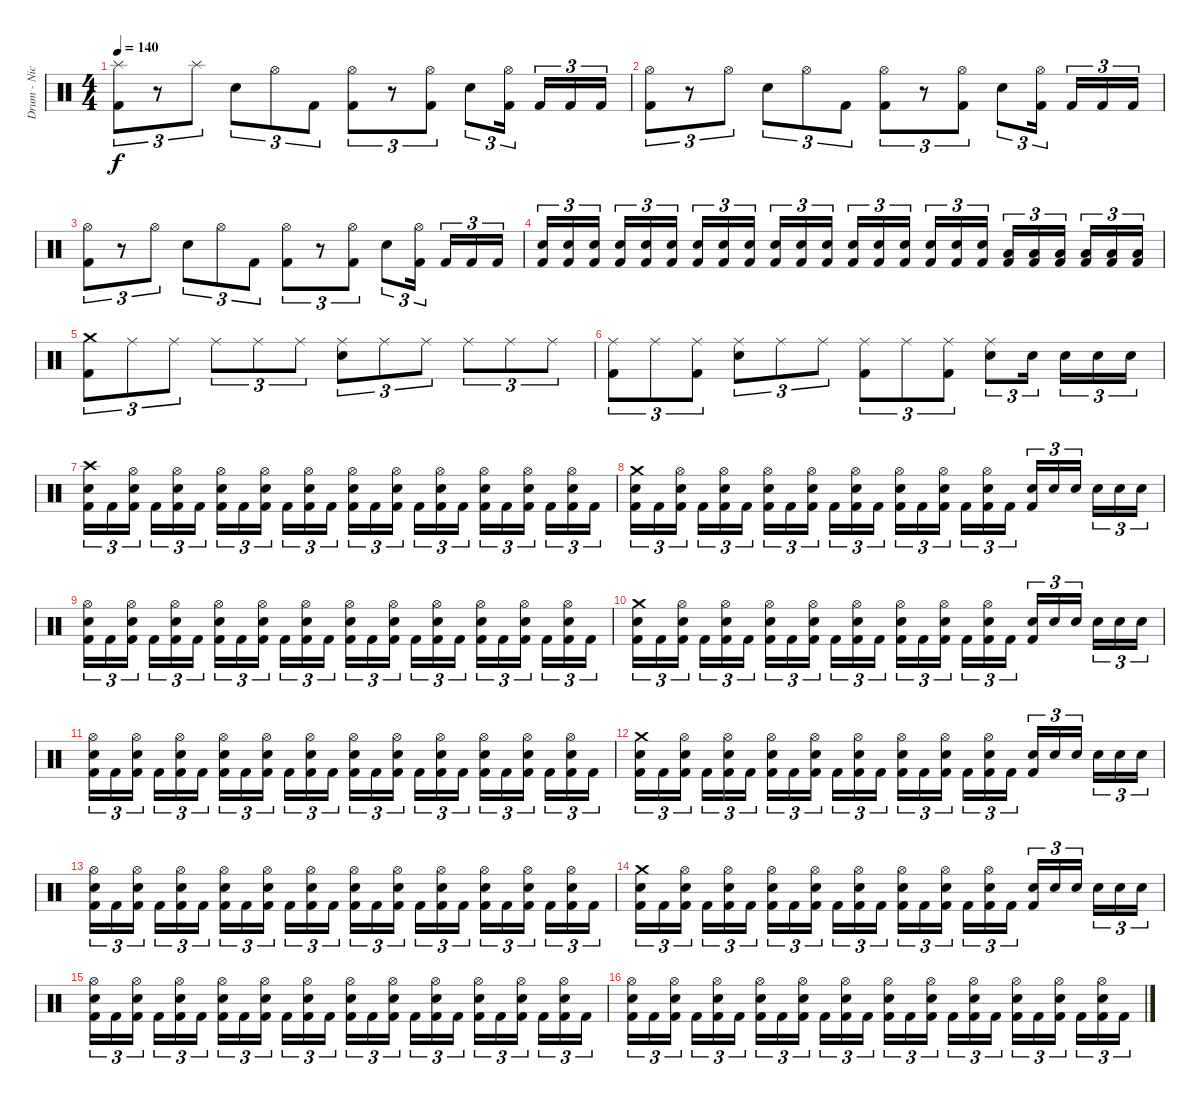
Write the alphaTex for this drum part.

\track ("Drum - Nicholas" "Drum - Nic") {instrument percussion}
\staff {score}
\articulation defaults
\ts (4 4)
\tempo 140
\clef neutral
\ks c
("Splash (hit)" "Kick (hit) 2").8{tu (3 2) dy f} r.8{tu (3 2)} "Splash (hit)".8{tu (3 2)} "Snare (hit) 2".8{tu (3 2)} "Hi-Hat (open)".8{tu (3 2)} "Kick (hit) 2".8{tu (3 2)} ("Hi-Hat (open)" "Kick (hit) 2").8{tu (3 2)} r.8{tu (3 2)} ("Hi-Hat (open)" "Kick (hit) 2").8{tu (3 2)} "Snare (hit) 2".8{tu (3 2)} ("Hi-Hat (open)" "Kick (hit) 2").16{tu (3 2) beam splitsecondary} "Kick (hit) 2".16{tu (3 2)} "Kick (hit) 2".16{tu (3 2)} "Kick (hit) 2".16{tu (3 2)} |
("Hi-Hat (open)" "Kick (hit) 2").8{tu (3 2)} r.8{tu (3 2)} "Hi-Hat (open)".8{tu (3 2)} "Snare (hit) 2".8{tu (3 2)} "Hi-Hat (open)".8{tu (3 2)} "Kick (hit) 2".8{tu (3 2)} ("Hi-Hat (open)" "Kick (hit) 2").8{tu (3 2)} r.8{tu (3 2)} ("Hi-Hat (open)" "Kick (hit) 2").8{tu (3 2)} "Snare (hit) 2".8{tu (3 2)} ("Hi-Hat (open)" "Kick (hit) 2").16{tu (3 2) beam splitsecondary} "Kick (hit) 2".16{tu (3 2)} "Kick (hit) 2".16{tu (3 2)} "Kick (hit) 2".16{tu (3 2)} |
("Hi-Hat (open)" "Kick (hit) 2").8{tu (3 2)} r.8{tu (3 2)} "Hi-Hat (open)".8{tu (3 2)} "Snare (hit) 2".8{tu (3 2)} "Hi-Hat (open)".8{tu (3 2)} "Kick (hit) 2".8{tu (3 2)} ("Hi-Hat (open)" "Kick (hit) 2").8{tu (3 2)} r.8{tu (3 2)} ("Hi-Hat (open)" "Kick (hit) 2").8{tu (3 2)} "Snare (hit) 2".8{tu (3 2)} ("Hi-Hat (open)" "Kick (hit) 2").16{tu (3 2) beam splitsecondary} "Kick (hit) 2".16{tu (3 2)} "Kick (hit) 2".16{tu (3 2)} "Kick (hit) 2".16{tu (3 2)} |
("Snare (hit) 2" "Kick (hit) 2").16{tu (3 2)} ("Snare (hit) 2" "Kick (hit) 2").16{tu (3 2)} ("Snare (hit) 2" "Kick (hit) 2").16{tu (3 2) beam splitsecondary} ("Snare (hit) 2" "Kick (hit) 2").16{tu (3 2)} ("Snare (hit) 2" "Kick (hit) 2").16{tu (3 2)} ("Snare (hit) 2" "Kick (hit) 2").16{tu (3 2)} ("Snare (hit) 2" "Kick (hit) 2").16{tu (3 2)} ("Snare (hit) 2" "Kick (hit) 2").16{tu (3 2)} ("Snare (hit) 2" "Kick (hit) 2").16{tu (3 2) beam splitsecondary} ("Snare (hit) 2" "Kick (hit) 2").16{tu (3 2)} ("Snare (hit) 2" "Kick (hit) 2").16{tu (3 2)} ("Snare (hit) 2" "Kick (hit) 2").16{tu (3 2)} ("Snare (hit) 2" "Kick (hit) 2").16{tu (3 2)} ("Snare (hit) 2" "Kick (hit) 2").16{tu (3 2)} ("Snare (hit) 2" "Kick (hit) 2").16{tu (3 2) beam splitsecondary} ("Snare (hit) 2" "Kick (hit) 2").16{tu (3 2)} ("Snare (hit) 2" "Kick (hit) 2").16{tu (3 2)} ("Snare (hit) 2" "Kick (hit) 2").16{tu (3 2)} ("Low Tom (hit)" "Kick (hit) 2").16{tu (3 2)} ("Low Tom (hit)" "Kick (hit) 2").16{tu (3 2)} ("Low Tom (hit)" "Kick (hit) 2").16{tu (3 2) beam splitsecondary} ("Low Tom (hit)" "Kick (hit) 2").16{tu (3 2)} ("Low Tom (hit)" "Kick (hit) 2").16{tu (3 2)} ("Low Tom (hit)" "Kick (hit) 2").16{tu (3 2)} |
("Crash medium (hit)" "Kick (hit) 2").8{tu (3 2)} "Ride (middle)".8{tu (3 2)} "Ride (middle)".8{tu (3 2)} "Ride (middle)".8{tu (3 2)} "Ride (middle)".8{tu (3 2)} "Ride (middle)".8{tu (3 2)} ("Ride (middle)" "Snare (hit) 2").8{tu (3 2)} "Ride (middle)".8{tu (3 2)} "Ride (middle)".8{tu (3 2)} "Ride (middle)".8{tu (3 2)} "Ride (middle)".8{tu (3 2)} "Ride (middle)".8{tu (3 2)} |
("Ride (middle)" "Kick (hit) 2").8{tu (3 2)} "Ride (middle)".8{tu (3 2)} ("Ride (middle)" "Kick (hit) 2").8{tu (3 2)} ("Ride (middle)" "Snare (hit) 2").8{tu (3 2)} "Ride (middle)".8{tu (3 2)} "Ride (middle)".8{tu (3 2)} ("Ride (middle)" "Kick (hit) 2").8{tu (3 2)} "Ride (middle)".8{tu (3 2)} ("Ride (middle)" "Kick (hit) 2").8{tu (3 2)} ("Ride (middle)" "Snare (hit) 2").8{tu (3 2)} "Snare (hit) 2".16{tu (3 2) beam splitsecondary} "Snare (hit) 2".16{tu (3 2)} "Snare (hit) 2".16{tu (3 2)} "Snare (hit) 2".16{tu (3 2)} |
("Crash high (hit)" "Snare (hit) 2" "Kick (hit) 2").16{tu (3 2)} "Kick (hit) 2".16{tu (3 2)} ("Hi-Hat (open)" "Snare (hit) 2" "Kick (hit) 2").16{tu (3 2) beam splitsecondary} "Kick (hit) 2".16{tu (3 2)} ("Hi-Hat (open)" "Snare (hit) 2" "Kick (hit) 2").16{tu (3 2)} "Kick (hit) 2".16{tu (3 2)} ("Hi-Hat (open)" "Snare (hit) 2" "Kick (hit) 2").16{tu (3 2)} "Kick (hit) 2".16{tu (3 2)} ("Hi-Hat (open)" "Snare (hit) 2" "Kick (hit) 2").16{tu (3 2) beam splitsecondary} "Kick (hit) 2".16{tu (3 2)} ("Hi-Hat (open)" "Snare (hit) 2" "Kick (hit) 2").16{tu (3 2)} "Kick (hit) 2".16{tu (3 2)} ("Hi-Hat (open)" "Snare (hit) 2" "Kick (hit) 2").16{tu (3 2)} "Kick (hit) 2".16{tu (3 2)} ("Hi-Hat (open)" "Snare (hit) 2" "Kick (hit) 2").16{tu (3 2) beam splitsecondary} "Kick (hit) 2".16{tu (3 2)} ("Hi-Hat (open)" "Snare (hit) 2" "Kick (hit) 2").16{tu (3 2)} "Kick (hit) 2".16{tu (3 2)} ("Hi-Hat (open)" "Snare (hit) 2" "Kick (hit) 2").16{tu (3 2)} "Kick (hit) 2".16{tu (3 2)} ("Hi-Hat (open)" "Snare (hit) 2" "Kick (hit) 2").16{tu (3 2) beam splitsecondary} "Kick (hit) 2".16{tu (3 2)} ("Hi-Hat (open)" "Snare (hit) 2" "Kick (hit) 2").16{tu (3 2)} "Kick (hit) 2".16{tu (3 2)} |
("Crash medium (hit)" "Snare (hit) 2" "Kick (hit) 2").16{tu (3 2)} "Kick (hit) 2".16{tu (3 2)} ("Hi-Hat (open)" "Snare (hit) 2" "Kick (hit) 2").16{tu (3 2) beam splitsecondary} "Kick (hit) 2".16{tu (3 2)} ("Hi-Hat (open)" "Snare (hit) 2" "Kick (hit) 2").16{tu (3 2)} "Kick (hit) 2".16{tu (3 2)} ("Hi-Hat (open)" "Snare (hit) 2" "Kick (hit) 2").16{tu (3 2)} "Kick (hit) 2".16{tu (3 2)} ("Hi-Hat (open)" "Snare (hit) 2" "Kick (hit) 2").16{tu (3 2) beam splitsecondary} "Kick (hit) 2".16{tu (3 2)} ("Hi-Hat (open)" "Snare (hit) 2" "Kick (hit) 2").16{tu (3 2)} "Kick (hit) 2".16{tu (3 2)} ("Hi-Hat (open)" "Snare (hit) 2" "Kick (hit) 2").16{tu (3 2)} "Kick (hit) 2".16{tu (3 2)} ("Hi-Hat (open)" "Snare (hit) 2" "Kick (hit) 2").16{tu (3 2) beam splitsecondary} "Kick (hit) 2".16{tu (3 2)} ("Hi-Hat (open)" "Snare (hit) 2" "Kick (hit) 2").16{tu (3 2)} "Kick (hit) 2".16{tu (3 2)} ("Snare (hit) 2" "Kick (hit) 2").16{tu (3 2)} "Snare (hit) 2".16{tu (3 2)} "Snare (hit) 2".16{tu (3 2) beam splitsecondary} "Snare (hit) 2".16{tu (3 2)} "Snare (hit) 2".16{tu (3 2)} "Snare (hit) 2".16{tu (3 2)} |
("Hi-Hat (open)" "Snare (hit) 2" "Kick (hit) 2").16{tu (3 2)} "Kick (hit) 2".16{tu (3 2)} ("Hi-Hat (open)" "Snare (hit) 2" "Kick (hit) 2").16{tu (3 2) beam splitsecondary} "Kick (hit) 2".16{tu (3 2)} ("Hi-Hat (open)" "Snare (hit) 2" "Kick (hit) 2").16{tu (3 2)} "Kick (hit) 2".16{tu (3 2)} ("Hi-Hat (open)" "Snare (hit) 2" "Kick (hit) 2").16{tu (3 2)} "Kick (hit) 2".16{tu (3 2)} ("Hi-Hat (open)" "Snare (hit) 2" "Kick (hit) 2").16{tu (3 2) beam splitsecondary} "Kick (hit) 2".16{tu (3 2)} ("Hi-Hat (open)" "Snare (hit) 2" "Kick (hit) 2").16{tu (3 2)} "Kick (hit) 2".16{tu (3 2)} ("Hi-Hat (open)" "Snare (hit) 2" "Kick (hit) 2").16{tu (3 2)} "Kick (hit) 2".16{tu (3 2)} ("Hi-Hat (open)" "Snare (hit) 2" "Kick (hit) 2").16{tu (3 2) beam splitsecondary} "Kick (hit) 2".16{tu (3 2)} ("Hi-Hat (open)" "Snare (hit) 2" "Kick (hit) 2").16{tu (3 2)} "Kick (hit) 2".16{tu (3 2)} ("Hi-Hat (open)" "Snare (hit) 2" "Kick (hit) 2").16{tu (3 2)} "Kick (hit) 2".16{tu (3 2)} ("Hi-Hat (open)" "Snare (hit) 2" "Kick (hit) 2").16{tu (3 2) beam splitsecondary} "Kick (hit) 2".16{tu (3 2)} ("Hi-Hat (open)" "Snare (hit) 2" "Kick (hit) 2").16{tu (3 2)} "Kick (hit) 2".16{tu (3 2)} |
("Crash medium (hit)" "Snare (hit) 2" "Kick (hit) 2").16{tu (3 2)} "Kick (hit) 2".16{tu (3 2)} ("Hi-Hat (open)" "Snare (hit) 2" "Kick (hit) 2").16{tu (3 2) beam splitsecondary} "Kick (hit) 2".16{tu (3 2)} ("Hi-Hat (open)" "Snare (hit) 2" "Kick (hit) 2").16{tu (3 2)} "Kick (hit) 2".16{tu (3 2)} ("Hi-Hat (open)" "Snare (hit) 2" "Kick (hit) 2").16{tu (3 2)} "Kick (hit) 2".16{tu (3 2)} ("Hi-Hat (open)" "Snare (hit) 2" "Kick (hit) 2").16{tu (3 2) beam splitsecondary} "Kick (hit) 2".16{tu (3 2)} ("Hi-Hat (open)" "Snare (hit) 2" "Kick (hit) 2").16{tu (3 2)} "Kick (hit) 2".16{tu (3 2)} ("Hi-Hat (open)" "Snare (hit) 2" "Kick (hit) 2").16{tu (3 2)} "Kick (hit) 2".16{tu (3 2)} ("Hi-Hat (open)" "Snare (hit) 2" "Kick (hit) 2").16{tu (3 2) beam splitsecondary} "Kick (hit) 2".16{tu (3 2)} ("Hi-Hat (open)" "Snare (hit) 2" "Kick (hit) 2").16{tu (3 2)} "Kick (hit) 2".16{tu (3 2)} ("Snare (hit) 2" "Kick (hit) 2").16{tu (3 2)} "Snare (hit) 2".16{tu (3 2)} "Snare (hit) 2".16{tu (3 2) beam splitsecondary} "Snare (hit) 2".16{tu (3 2)} "Snare (hit) 2".16{tu (3 2)} "Snare (hit) 2".16{tu (3 2)} |
("Hi-Hat (open)" "Snare (hit) 2" "Kick (hit) 2").16{tu (3 2)} "Kick (hit) 2".16{tu (3 2)} ("Hi-Hat (open)" "Snare (hit) 2" "Kick (hit) 2").16{tu (3 2) beam splitsecondary} "Kick (hit) 2".16{tu (3 2)} ("Hi-Hat (open)" "Snare (hit) 2" "Kick (hit) 2").16{tu (3 2)} "Kick (hit) 2".16{tu (3 2)} ("Hi-Hat (open)" "Snare (hit) 2" "Kick (hit) 2").16{tu (3 2)} "Kick (hit) 2".16{tu (3 2)} ("Hi-Hat (open)" "Snare (hit) 2" "Kick (hit) 2").16{tu (3 2) beam splitsecondary} "Kick (hit) 2".16{tu (3 2)} ("Hi-Hat (open)" "Snare (hit) 2" "Kick (hit) 2").16{tu (3 2)} "Kick (hit) 2".16{tu (3 2)} ("Hi-Hat (open)" "Snare (hit) 2" "Kick (hit) 2").16{tu (3 2)} "Kick (hit) 2".16{tu (3 2)} ("Hi-Hat (open)" "Snare (hit) 2" "Kick (hit) 2").16{tu (3 2) beam splitsecondary} "Kick (hit) 2".16{tu (3 2)} ("Hi-Hat (open)" "Snare (hit) 2" "Kick (hit) 2").16{tu (3 2)} "Kick (hit) 2".16{tu (3 2)} ("Hi-Hat (open)" "Snare (hit) 2" "Kick (hit) 2").16{tu (3 2)} "Kick (hit) 2".16{tu (3 2)} ("Hi-Hat (open)" "Snare (hit) 2" "Kick (hit) 2").16{tu (3 2) beam splitsecondary} "Kick (hit) 2".16{tu (3 2)} ("Hi-Hat (open)" "Snare (hit) 2" "Kick (hit) 2").16{tu (3 2)} "Kick (hit) 2".16{tu (3 2)} |
("Crash medium (hit)" "Snare (hit) 2" "Kick (hit) 2").16{tu (3 2)} "Kick (hit) 2".16{tu (3 2)} ("Hi-Hat (open)" "Snare (hit) 2" "Kick (hit) 2").16{tu (3 2) beam splitsecondary} "Kick (hit) 2".16{tu (3 2)} ("Hi-Hat (open)" "Snare (hit) 2" "Kick (hit) 2").16{tu (3 2)} "Kick (hit) 2".16{tu (3 2)} ("Hi-Hat (open)" "Snare (hit) 2" "Kick (hit) 2").16{tu (3 2)} "Kick (hit) 2".16{tu (3 2)} ("Hi-Hat (open)" "Snare (hit) 2" "Kick (hit) 2").16{tu (3 2) beam splitsecondary} "Kick (hit) 2".16{tu (3 2)} ("Hi-Hat (open)" "Snare (hit) 2" "Kick (hit) 2").16{tu (3 2)} "Kick (hit) 2".16{tu (3 2)} ("Hi-Hat (open)" "Snare (hit) 2" "Kick (hit) 2").16{tu (3 2)} "Kick (hit) 2".16{tu (3 2)} ("Hi-Hat (open)" "Snare (hit) 2" "Kick (hit) 2").16{tu (3 2) beam splitsecondary} "Kick (hit) 2".16{tu (3 2)} ("Hi-Hat (open)" "Snare (hit) 2" "Kick (hit) 2").16{tu (3 2)} "Kick (hit) 2".16{tu (3 2)} ("Snare (hit) 2" "Kick (hit) 2").16{tu (3 2)} "Snare (hit) 2".16{tu (3 2)} "Snare (hit) 2".16{tu (3 2) beam splitsecondary} "Snare (hit) 2".16{tu (3 2)} "Snare (hit) 2".16{tu (3 2)} "Snare (hit) 2".16{tu (3 2)} |
("Hi-Hat (open)" "Snare (hit) 2" "Kick (hit) 2").16{tu (3 2)} "Kick (hit) 2".16{tu (3 2)} ("Hi-Hat (open)" "Snare (hit) 2" "Kick (hit) 2").16{tu (3 2) beam splitsecondary} "Kick (hit) 2".16{tu (3 2)} ("Hi-Hat (open)" "Snare (hit) 2" "Kick (hit) 2").16{tu (3 2)} "Kick (hit) 2".16{tu (3 2)} ("Hi-Hat (open)" "Snare (hit) 2" "Kick (hit) 2").16{tu (3 2)} "Kick (hit) 2".16{tu (3 2)} ("Hi-Hat (open)" "Snare (hit) 2" "Kick (hit) 2").16{tu (3 2) beam splitsecondary} "Kick (hit) 2".16{tu (3 2)} ("Hi-Hat (open)" "Snare (hit) 2" "Kick (hit) 2").16{tu (3 2)} "Kick (hit) 2".16{tu (3 2)} ("Hi-Hat (open)" "Snare (hit) 2" "Kick (hit) 2").16{tu (3 2)} "Kick (hit) 2".16{tu (3 2)} ("Hi-Hat (open)" "Snare (hit) 2" "Kick (hit) 2").16{tu (3 2) beam splitsecondary} "Kick (hit) 2".16{tu (3 2)} ("Hi-Hat (open)" "Snare (hit) 2" "Kick (hit) 2").16{tu (3 2)} "Kick (hit) 2".16{tu (3 2)} ("Hi-Hat (open)" "Snare (hit) 2" "Kick (hit) 2").16{tu (3 2)} "Kick (hit) 2".16{tu (3 2)} ("Hi-Hat (open)" "Snare (hit) 2" "Kick (hit) 2").16{tu (3 2) beam splitsecondary} "Kick (hit) 2".16{tu (3 2)} ("Hi-Hat (open)" "Snare (hit) 2" "Kick (hit) 2").16{tu (3 2)} "Kick (hit) 2".16{tu (3 2)} |
("Crash medium (hit)" "Snare (hit) 2" "Kick (hit) 2").16{tu (3 2)} "Kick (hit) 2".16{tu (3 2)} ("Hi-Hat (open)" "Snare (hit) 2" "Kick (hit) 2").16{tu (3 2) beam splitsecondary} "Kick (hit) 2".16{tu (3 2)} ("Hi-Hat (open)" "Snare (hit) 2" "Kick (hit) 2").16{tu (3 2)} "Kick (hit) 2".16{tu (3 2)} ("Hi-Hat (open)" "Snare (hit) 2" "Kick (hit) 2").16{tu (3 2)} "Kick (hit) 2".16{tu (3 2)} ("Hi-Hat (open)" "Snare (hit) 2" "Kick (hit) 2").16{tu (3 2) beam splitsecondary} "Kick (hit) 2".16{tu (3 2)} ("Hi-Hat (open)" "Snare (hit) 2" "Kick (hit) 2").16{tu (3 2)} "Kick (hit) 2".16{tu (3 2)} ("Hi-Hat (open)" "Snare (hit) 2" "Kick (hit) 2").16{tu (3 2)} "Kick (hit) 2".16{tu (3 2)} ("Hi-Hat (open)" "Snare (hit) 2" "Kick (hit) 2").16{tu (3 2) beam splitsecondary} "Kick (hit) 2".16{tu (3 2)} ("Hi-Hat (open)" "Snare (hit) 2" "Kick (hit) 2").16{tu (3 2)} "Kick (hit) 2".16{tu (3 2)} ("Snare (hit) 2" "Kick (hit) 2").16{tu (3 2)} "Snare (hit) 2".16{tu (3 2)} "Snare (hit) 2".16{tu (3 2) beam splitsecondary} "Snare (hit) 2".16{tu (3 2)} "Snare (hit) 2".16{tu (3 2)} "Snare (hit) 2".16{tu (3 2)} |
("Hi-Hat (open)" "Snare (hit) 2" "Kick (hit) 2").16{tu (3 2)} "Kick (hit) 2".16{tu (3 2)} ("Hi-Hat (open)" "Snare (hit) 2" "Kick (hit) 2").16{tu (3 2) beam splitsecondary} "Kick (hit) 2".16{tu (3 2)} ("Hi-Hat (open)" "Snare (hit) 2" "Kick (hit) 2").16{tu (3 2)} "Kick (hit) 2".16{tu (3 2)} ("Hi-Hat (open)" "Snare (hit) 2" "Kick (hit) 2").16{tu (3 2)} "Kick (hit) 2".16{tu (3 2)} ("Hi-Hat (open)" "Snare (hit) 2" "Kick (hit) 2").16{tu (3 2) beam splitsecondary} "Kick (hit) 2".16{tu (3 2)} ("Hi-Hat (open)" "Snare (hit) 2" "Kick (hit) 2").16{tu (3 2)} "Kick (hit) 2".16{tu (3 2)} ("Hi-Hat (open)" "Snare (hit) 2" "Kick (hit) 2").16{tu (3 2)} "Kick (hit) 2".16{tu (3 2)} ("Hi-Hat (open)" "Snare (hit) 2" "Kick (hit) 2").16{tu (3 2) beam splitsecondary} "Kick (hit) 2".16{tu (3 2)} ("Hi-Hat (open)" "Snare (hit) 2" "Kick (hit) 2").16{tu (3 2)} "Kick (hit) 2".16{tu (3 2)} ("Hi-Hat (open)" "Snare (hit) 2" "Kick (hit) 2").16{tu (3 2)} "Kick (hit) 2".16{tu (3 2)} ("Hi-Hat (open)" "Snare (hit) 2" "Kick (hit) 2").16{tu (3 2) beam splitsecondary} "Kick (hit) 2".16{tu (3 2)} ("Hi-Hat (open)" "Snare (hit) 2" "Kick (hit) 2").16{tu (3 2)} "Kick (hit) 2".16{tu (3 2)} |
("Hi-Hat (open)" "Snare (hit) 2" "Kick (hit) 2").16{tu (3 2)} "Kick (hit) 2".16{tu (3 2)} ("Hi-Hat (open)" "Snare (hit) 2" "Kick (hit) 2").16{tu (3 2) beam splitsecondary} "Kick (hit) 2".16{tu (3 2)} ("Hi-Hat (open)" "Snare (hit) 2" "Kick (hit) 2").16{tu (3 2)} "Kick (hit) 2".16{tu (3 2)} ("Hi-Hat (open)" "Snare (hit) 2" "Kick (hit) 2").16{tu (3 2)} "Kick (hit) 2".16{tu (3 2)} ("Hi-Hat (open)" "Snare (hit) 2" "Kick (hit) 2").16{tu (3 2) beam splitsecondary} "Kick (hit) 2".16{tu (3 2)} ("Hi-Hat (open)" "Snare (hit) 2" "Kick (hit) 2").16{tu (3 2)} "Kick (hit) 2".16{tu (3 2)} ("Hi-Hat (open)" "Snare (hit) 2" "Kick (hit) 2").16{tu (3 2)} "Kick (hit) 2".16{tu (3 2)} ("Hi-Hat (open)" "Snare (hit) 2" "Kick (hit) 2").16{tu (3 2) beam splitsecondary} "Kick (hit) 2".16{tu (3 2)} ("Hi-Hat (open)" "Snare (hit) 2" "Kick (hit) 2").16{tu (3 2)} "Kick (hit) 2".16{tu (3 2)} ("Hi-Hat (open)" "Snare (hit) 2" "Kick (hit) 2").16{tu (3 2)} "Kick (hit) 2".16{tu (3 2)} ("Hi-Hat (open)" "Snare (hit) 2" "Kick (hit) 2").16{tu (3 2) beam splitsecondary} "Kick (hit) 2".16{tu (3 2)} ("Hi-Hat (open)" "Snare (hit) 2" "Kick (hit) 2").16{tu (3 2)} "Kick (hit) 2".16{tu (3 2)}
